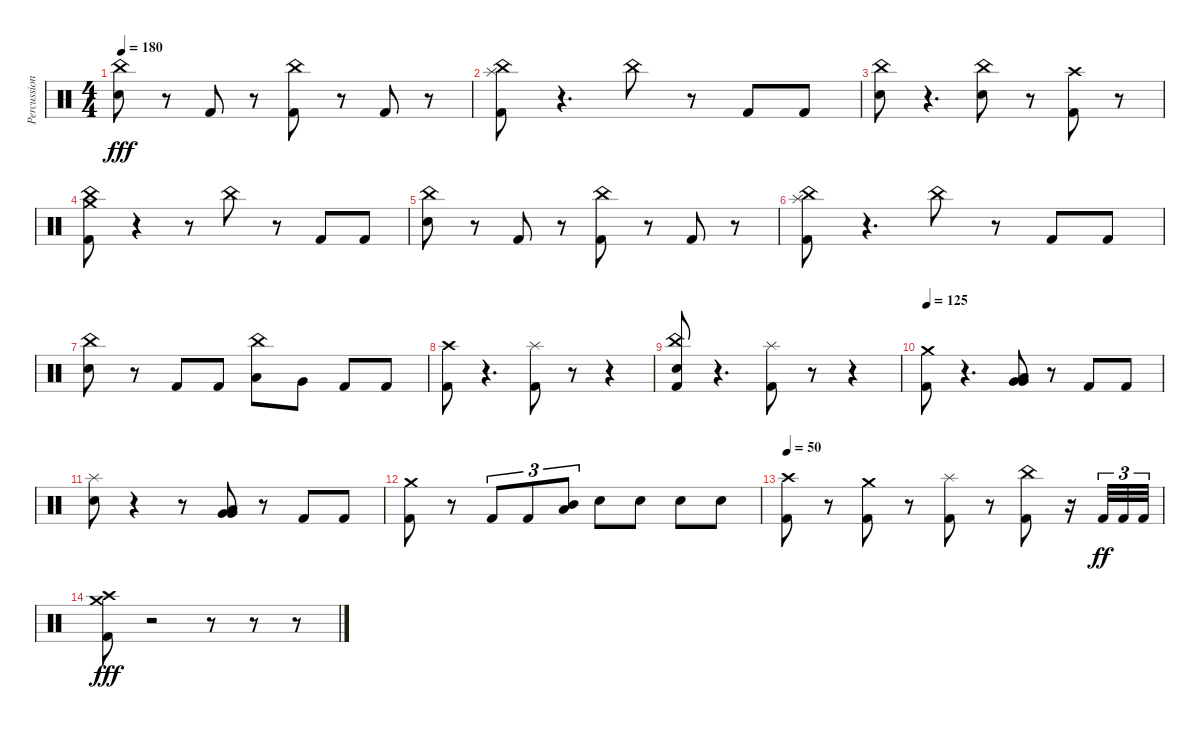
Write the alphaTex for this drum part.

\track ("Percussion" "Percussion") {instrument percussion}
\staff {score}
\articulation defaults
\ts (4 4)
\tempo 180
\clef neutral
\ks c
("Snare (hit) 2" "China (hit)").8{dy fff} r.8 "Kick (hit) 2".8 r.8 ("Kick (hit) 2" "China (hit)").8 r.8 "Kick (hit) 2".8 r.8 |
("Kick (hit) 2" "China (hit)" "Splash (hit)").8 r.4{d} "China (hit)".8 r.8 "Kick (hit) 2".8 "Kick (hit) 2".8 |
("Snare (hit) 2" "China (hit)").8 r.4{d} ("Snare (hit) 2" "China (hit)").8 r.8 ("Kick (hit) 2" "Crash high (hit)").8 r.8 |
("China (hit)" "Crash medium (hit)" "Kick (hit) 2").8 r.4 r.8 "China (hit)".8 r.8 "Kick (hit) 2".8 "Kick (hit) 2".8 |
("Snare (hit) 2" "China (hit)").8 r.8 "Kick (hit) 2".8 r.8 ("Kick (hit) 2" "China (hit)").8 r.8 "Kick (hit) 2".8 r.8 |
("Kick (hit) 2" "China (hit)" "Splash (hit)").8 r.4{d} "China (hit)".8 r.8 "Kick (hit) 2".8 "Kick (hit) 2".8 |
("Snare (hit) 2" "China (hit)").8 r.8 "Kick (hit) 2".8 "Kick (hit) 2".8 ("Low Floor Tom (hit)" "China (hit)").8 "Very Low Tom (hit)".8 "Kick (hit) 2".8 "Kick (hit) 2".8 |
("Kick (hit) 2" "Crash high (hit)").8 r.4{d} ("Kick (hit) 2" "Splash (hit)").8 r.8 r.4 |
("Kick (hit) 2" "Snare (hit) 2" "China (hit)").8 r.4{d} ("Kick (hit) 2" "Splash (hit)").8 r.8 r.4 |
\tempo 125
("Kick (hit) 2" "Crash medium (hit)").8 r.4{d} ("Very Low Tom (hit)" "Very Low Tom (hit)" "Low Floor Tom (hit)").8 r.8 "Kick (hit) 2".8 "Kick (hit) 2".8 |
("Snare (hit) 2" "Splash (hit)").8 r.4 r.8 ("Very Low Tom (hit)" "Very Low Tom (hit)" "Low Floor Tom (hit)").8 r.8 "Kick (hit) 2".8 "Kick (hit) 2".8 |
("Kick (hit) 2" "Crash medium (hit)").8 r.8 "Kick (hit) 2".8{tu (3 2)} "Kick (hit) 2".8{tu (3 2)} ("Low Tom (hit)" "Mid Tom (hit)").8{tu (3 2)} "Snare (hit) 2".8 "Snare (hit) 2".8 "Snare (hit) 2".8 "Snare (hit) 2".8 |
\tempo 50
("Kick (hit) 2" "Crash high (hit)").8 r.8 ("Kick (hit) 2" "Crash medium (hit)").8 r.8 ("Kick (hit) 2" "Splash (hit)").8 r.8 ("Kick (hit) 2" "China (hit)").8 r.16 "Kick (hit) 2".32{tu (3 2) dy ff} "Kick (hit) 2".32{tu (3 2)} "Kick (hit) 2".32{tu (3 2)} |
("Kick (hit) 2" "Crash high (hit)" "Crash medium (hit)").8{dy fff} r.2 r.8 r.8 r.8
